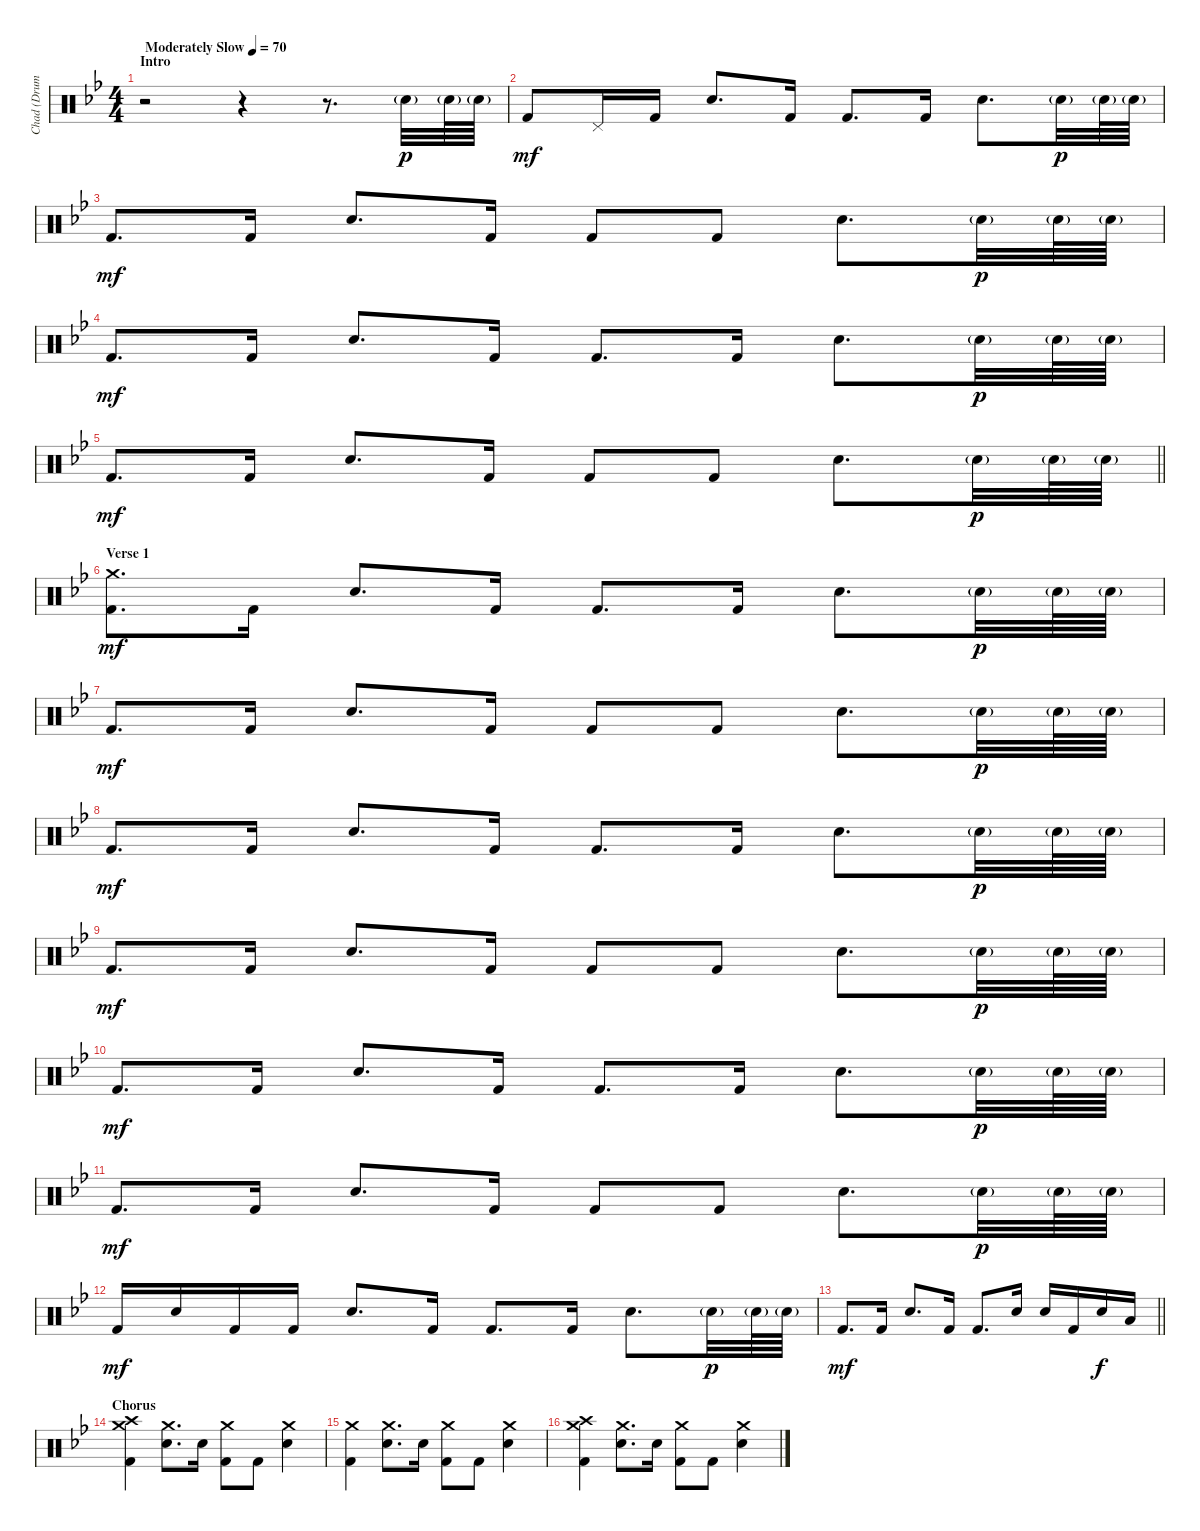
\track ("Chad (Drums)" "Chad (Drum") {instrument percussion}
\staff {score}
\articulation defaults
\ts (4 4)
\section ("" "Intro")
\tempo (70 "Moderately Slow")
\clef neutral
\ks bb
r.2{dy p} r.4 r.8{d} "Snare (hit) 2"{g}.32 "Snare (hit) 2"{g}.64 "Snare (hit) 2"{g}.64 |
"Kick (hit) 2".8{dy mf} "Pedal Hi-Hat (hit)".16 "Kick (hit) 2".16 "Snare (hit) 2".8{d} "Kick (hit) 2".16 "Kick (hit) 2".8{d} "Kick (hit) 2".16 "Snare (hit) 2".8{d} "Snare (hit) 2"{g}.32{dy p} "Snare (hit) 2"{g}.64 "Snare (hit) 2"{g}.64 |
"Kick (hit) 2".8{d dy mf} "Kick (hit) 2".16 "Snare (hit) 2".8{d} "Kick (hit) 2".16 "Kick (hit) 2".8 "Kick (hit) 2".8 "Snare (hit) 2".8{d} "Snare (hit) 2"{g}.32{dy p} "Snare (hit) 2"{g}.64 "Snare (hit) 2"{g}.64 |
"Kick (hit) 2".8{d dy mf} "Kick (hit) 2".16 "Snare (hit) 2".8{d} "Kick (hit) 2".16 "Kick (hit) 2".8{d} "Kick (hit) 2".16 "Snare (hit) 2".8{d} "Snare (hit) 2"{g}.32{dy p} "Snare (hit) 2"{g}.64 "Snare (hit) 2"{g}.64 |
\barLineRight lightlight "Kick (hit) 2".8{d dy mf} "Kick (hit) 2".16 "Snare (hit) 2".8{d} "Kick (hit) 2".16 "Kick (hit) 2".8 "Kick (hit) 2".8 "Snare (hit) 2".8{d} "Snare (hit) 2"{g}.32{dy p} "Snare (hit) 2"{g}.64 "Snare (hit) 2"{g}.64
|
\section ("" "Verse 1")
("Crash medium (hit)" "Kick (hit) 2").8{d dy mf} "Kick (hit) 2".16 "Snare (hit) 2".8{d} "Kick (hit) 2".16 "Kick (hit) 2".8{d} "Kick (hit) 2".16 "Snare (hit) 2".8{d} "Snare (hit) 2"{g}.32{dy p} "Snare (hit) 2"{g}.64 "Snare (hit) 2"{g}.64 |
"Kick (hit) 2".8{d dy mf} "Kick (hit) 2".16 "Snare (hit) 2".8{d} "Kick (hit) 2".16 "Kick (hit) 2".8 "Kick (hit) 2".8 "Snare (hit) 2".8{d} "Snare (hit) 2"{g}.32{dy p} "Snare (hit) 2"{g}.64 "Snare (hit) 2"{g}.64 |
"Kick (hit) 2".8{d dy mf} "Kick (hit) 2".16 "Snare (hit) 2".8{d} "Kick (hit) 2".16 "Kick (hit) 2".8{d} "Kick (hit) 2".16 "Snare (hit) 2".8{d} "Snare (hit) 2"{g}.32{dy p} "Snare (hit) 2"{g}.64 "Snare (hit) 2"{g}.64 |
"Kick (hit) 2".8{d dy mf} "Kick (hit) 2".16 "Snare (hit) 2".8{d} "Kick (hit) 2".16 "Kick (hit) 2".8 "Kick (hit) 2".8 "Snare (hit) 2".8{d} "Snare (hit) 2"{g}.32{dy p} "Snare (hit) 2"{g}.64 "Snare (hit) 2"{g}.64 |
"Kick (hit) 2".8{d dy mf} "Kick (hit) 2".16 "Snare (hit) 2".8{d} "Kick (hit) 2".16 "Kick (hit) 2".8{d} "Kick (hit) 2".16 "Snare (hit) 2".8{d} "Snare (hit) 2"{g}.32{dy p} "Snare (hit) 2"{g}.64 "Snare (hit) 2"{g}.64 |
"Kick (hit) 2".8{d dy mf} "Kick (hit) 2".16 "Snare (hit) 2".8{d} "Kick (hit) 2".16 "Kick (hit) 2".8 "Kick (hit) 2".8 "Snare (hit) 2".8{d} "Snare (hit) 2"{g}.32{dy p} "Snare (hit) 2"{g}.64 "Snare (hit) 2"{g}.64 |
"Kick (hit) 2".16{dy mf} "Snare (hit) 2".16 "Kick (hit) 2".16 "Kick (hit) 2".16 "Snare (hit) 2".8{d} "Kick (hit) 2".16 "Kick (hit) 2".8{d} "Kick (hit) 2".16 "Snare (hit) 2".8{d} "Snare (hit) 2"{g}.32{dy p} "Snare (hit) 2"{g}.64 "Snare (hit) 2"{g}.64 |
\barLineRight lightlight "Kick (hit) 2".8{d dy mf} "Kick (hit) 2".16 "Snare (hit) 2".8{d} "Kick (hit) 2".16 "Kick (hit) 2".8{d} "Snare (hit) 2".16 "Snare (hit) 2".16 "Kick (hit) 2".16 "Snare (hit) 2".16{dy f} "Low Floor Tom (hit)".16
|
\section ("" "Chorus")
("Crash medium (hit)" "Crash high (hit)" "Kick (hit) 2").4 ("Crash medium (hit)" "Snare (hit) 2").8{d} "Snare (hit) 2".16 ("Crash medium (hit)" "Kick (hit) 2").8 "Kick (hit) 2".8 ("Crash medium (hit)" "Snare (hit) 2").4 |
("Crash medium (hit)" "Kick (hit) 2").4 ("Crash medium (hit)" "Snare (hit) 2").8{d} "Snare (hit) 2".16 ("Crash medium (hit)" "Kick (hit) 2").8 "Kick (hit) 2".8 ("Crash medium (hit)" "Snare (hit) 2").4 |
("Crash medium (hit)" "Crash high (hit)" "Kick (hit) 2").4 ("Crash medium (hit)" "Snare (hit) 2").8{d} "Snare (hit) 2".16 ("Crash medium (hit)" "Kick (hit) 2").8 "Kick (hit) 2".8 ("Crash medium (hit)" "Snare (hit) 2").4
